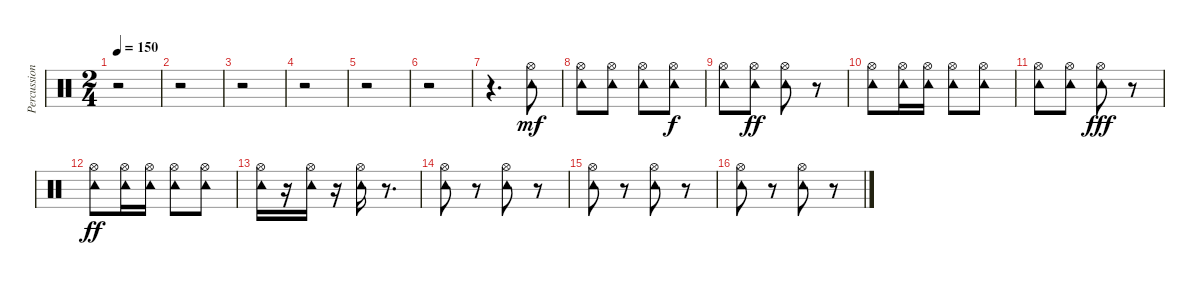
\track ("Percussion" "Percussion") {instrument percussion}
\staff {score}
\articulation defaults
\ts (2 4)
\tempo 150
\clef neutral
\ks c
r.2{dy ff} |
r.2 |
r.2 |
r.2 |
r.2 |
r.2 |
r.4{d} ("Hi-Hat (open)" "Tambourine (hit)").8{dy mf} |
("Hi-Hat (open)" "Tambourine (hit)").8 ("Hi-Hat (open)" "Tambourine (hit)").8 ("Hi-Hat (open)" "Tambourine (hit)").8 ("Hi-Hat (open)" "Tambourine (hit)").8{dy f} |
("Hi-Hat (open)" "Tambourine (hit)").8 ("Hi-Hat (open)" "Tambourine (hit)").8{dy ff} ("Hi-Hat (open)" "Tambourine (hit)").8 r.8 |
("Hi-Hat (open)" "Tambourine (hit)").8 ("Hi-Hat (open)" "Tambourine (hit)").16 ("Hi-Hat (open)" "Tambourine (hit)").16 ("Hi-Hat (open)" "Tambourine (hit)").8 ("Hi-Hat (open)" "Tambourine (hit)").8 |
("Hi-Hat (open)" "Tambourine (hit)").8 ("Hi-Hat (open)" "Tambourine (hit)").8 ("Hi-Hat (open)" "Tambourine (hit)").8{dy fff} r.8 |
("Hi-Hat (open)" "Tambourine (hit)").8{dy ff} ("Hi-Hat (open)" "Tambourine (hit)").16 ("Hi-Hat (open)" "Tambourine (hit)").16 ("Hi-Hat (open)" "Tambourine (hit)").8 ("Hi-Hat (open)" "Tambourine (hit)").8 |
("Hi-Hat (open)" "Tambourine (hit)").16 r.16 ("Hi-Hat (open)" "Tambourine (hit)").16 r.16 ("Hi-Hat (open)" "Tambourine (hit)").16 r.8{d} |
("Hi-Hat (open)" "Tambourine (hit)").8 r.8 ("Hi-Hat (open)" "Tambourine (hit)").8 r.8 |
("Hi-Hat (open)" "Tambourine (hit)").8 r.8 ("Hi-Hat (open)" "Tambourine (hit)").8 r.8 |
("Hi-Hat (open)" "Tambourine (hit)").8 r.8 ("Hi-Hat (open)" "Tambourine (hit)").8 r.8
